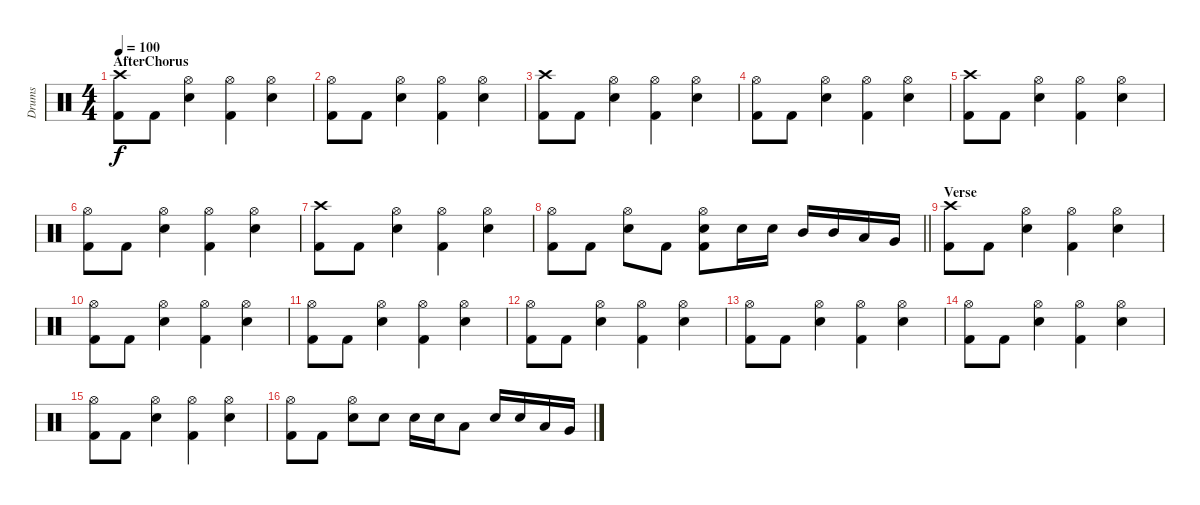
\track ("Drums" "Drums") {instrument percussion}
\staff {score}
\articulation defaults
\ts (4 4)
\section ("" "AfterChorus")
\tempo 100
\clef neutral
\ks c
("Kick (hit) 2" "Crash high (hit)").8{dy f} "Kick (hit) 2".8 ("Snare (hit) 2" "Hi-Hat (open)").4 ("Kick (hit) 2" "Hi-Hat (open)").4 ("Snare (hit) 2" "Hi-Hat (open)").4 |
("Kick (hit) 2" "Hi-Hat (open)").8 "Kick (hit) 2".8 ("Snare (hit) 2" "Hi-Hat (open)").4 ("Kick (hit) 2" "Hi-Hat (open)").4 ("Snare (hit) 2" "Hi-Hat (open)").4 |
("Kick (hit) 2" "Crash high (hit)").8 "Kick (hit) 2".8 ("Snare (hit) 2" "Hi-Hat (open)").4 ("Kick (hit) 2" "Hi-Hat (open)").4 ("Snare (hit) 2" "Hi-Hat (open)").4 |
("Kick (hit) 2" "Hi-Hat (open)").8 "Kick (hit) 2".8 ("Snare (hit) 2" "Hi-Hat (open)").4 ("Kick (hit) 2" "Hi-Hat (open)").4 ("Snare (hit) 2" "Hi-Hat (open)").4 |
("Kick (hit) 2" "Crash high (hit)").8 "Kick (hit) 2".8 ("Snare (hit) 2" "Hi-Hat (open)").4 ("Kick (hit) 2" "Hi-Hat (open)").4 ("Snare (hit) 2" "Hi-Hat (open)").4 |
("Kick (hit) 2" "Hi-Hat (open)").8 "Kick (hit) 2".8 ("Snare (hit) 2" "Hi-Hat (open)").4 ("Kick (hit) 2" "Hi-Hat (open)").4 ("Snare (hit) 2" "Hi-Hat (open)").4 |
("Kick (hit) 2" "Crash high (hit)").8 "Kick (hit) 2".8 ("Snare (hit) 2" "Hi-Hat (open)").4 ("Kick (hit) 2" "Hi-Hat (open)").4 ("Snare (hit) 2" "Hi-Hat (open)").4 |
\barLineRight lightlight
("Kick (hit) 2" "Hi-Hat (open)").8 "Kick (hit) 2".8 ("Snare (hit) 2" "Hi-Hat (open)").8 "Kick (hit) 2".8 ("Kick (hit) 2" "Hi-Hat (open)" "Snare (hit) 2").8 "Snare (hit) 2".16 "Snare (hit) 2".16 "Mid Tom (hit)".16 "Mid Tom (hit)".16 "Low Tom (hit)".16 "Very Low Tom (hit)".16 |
\section ("" "Verse")
("Kick (hit) 2" "Crash high (hit)").8 "Kick (hit) 2".8 ("Snare (hit) 2" "Hi-Hat (open)").4 ("Kick (hit) 2" "Hi-Hat (open)").4 ("Snare (hit) 2" "Hi-Hat (open)").4 |
("Kick (hit) 2" "Hi-Hat (open)").8 "Kick (hit) 2".8 ("Snare (hit) 2" "Hi-Hat (open)").4 ("Kick (hit) 2" "Hi-Hat (open)").4 ("Snare (hit) 2" "Hi-Hat (open)").4 |
("Kick (hit) 2" "Hi-Hat (open)").8 "Kick (hit) 2".8 ("Snare (hit) 2" "Hi-Hat (open)").4 ("Kick (hit) 2" "Hi-Hat (open)").4 ("Snare (hit) 2" "Hi-Hat (open)").4 |
("Kick (hit) 2" "Hi-Hat (open)").8 "Kick (hit) 2".8 ("Snare (hit) 2" "Hi-Hat (open)").4 ("Kick (hit) 2" "Hi-Hat (open)").4 ("Snare (hit) 2" "Hi-Hat (open)").4 |
("Kick (hit) 2" "Hi-Hat (open)").8 "Kick (hit) 2".8 ("Snare (hit) 2" "Hi-Hat (open)").4 ("Kick (hit) 2" "Hi-Hat (open)").4 ("Snare (hit) 2" "Hi-Hat (open)").4 |
("Kick (hit) 2" "Hi-Hat (open)").8 "Kick (hit) 2".8 ("Snare (hit) 2" "Hi-Hat (open)").4 ("Kick (hit) 2" "Hi-Hat (open)").4 ("Snare (hit) 2" "Hi-Hat (open)").4 |
("Kick (hit) 2" "Hi-Hat (open)").8 "Kick (hit) 2".8 ("Snare (hit) 2" "Hi-Hat (open)").4 ("Kick (hit) 2" "Hi-Hat (open)").4 ("Snare (hit) 2" "Hi-Hat (open)").4 |
("Kick (hit) 2" "Hi-Hat (open)").8 "Kick (hit) 2".8 ("Snare (hit) 2" "Hi-Hat (open)").8 "Snare (hit) 2".8 "Snare (hit) 2".16 "Snare (hit) 2".16 "Low Tom (hit)".8 "Snare (hit) 2".16 "Snare (hit) 2".16 "Low Tom (hit)".16 "Very Low Tom (hit)".16
